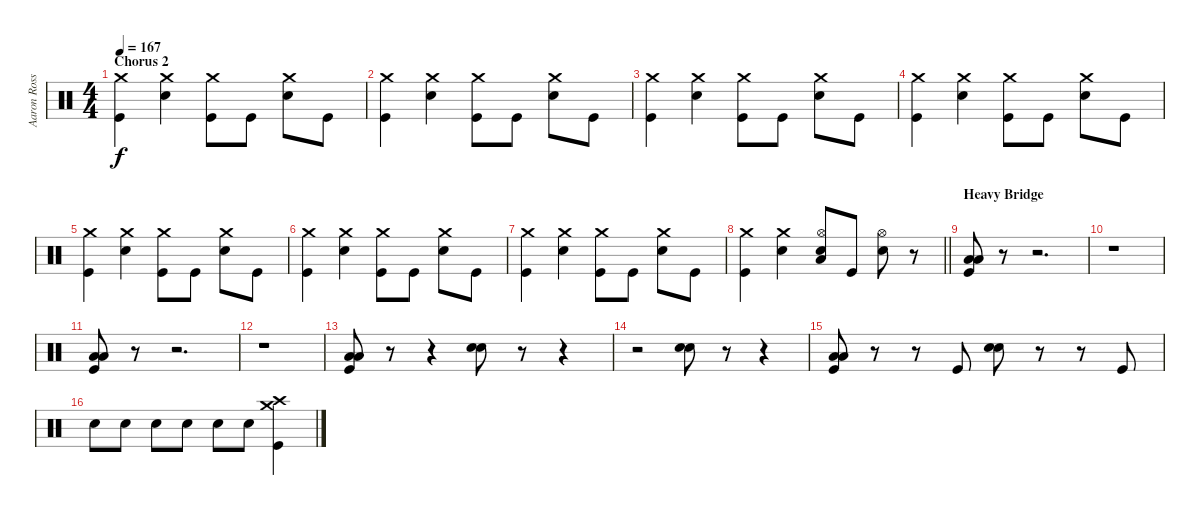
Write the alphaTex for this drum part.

\track ("Aaron Rossi (Drums)" "Aaron Ross") {instrument percussion}
\staff {score}
\articulation defaults
\ts (4 4)
\section ("" "Chorus 2")
\tempo 167
\clef neutral
\ks c
("Crash medium (hit)" "Kick (hit)").4{dy f} ("Crash medium (hit)" "Snare (hit) 2").4 ("Crash medium (hit)" "Kick (hit)").8 "Kick (hit)".8 ("Crash medium (hit)" "Snare (hit) 2").8 "Kick (hit)".8 |
("Crash medium (hit)" "Kick (hit)").4 ("Crash medium (hit)" "Snare (hit) 2").4 ("Crash medium (hit)" "Kick (hit)").8 "Kick (hit)".8 ("Crash medium (hit)" "Snare (hit) 2").8 "Kick (hit)".8 |
("Crash medium (hit)" "Kick (hit)").4 ("Crash medium (hit)" "Snare (hit) 2").4 ("Crash medium (hit)" "Kick (hit)").8 "Kick (hit)".8 ("Crash medium (hit)" "Snare (hit) 2").8 "Kick (hit)".8 |
("Crash medium (hit)" "Kick (hit)").4 ("Crash medium (hit)" "Snare (hit) 2").4 ("Crash medium (hit)" "Kick (hit)").8 "Kick (hit)".8 ("Crash medium (hit)" "Snare (hit) 2").8 "Kick (hit)".8 |
("Crash medium (hit)" "Kick (hit)").4 ("Crash medium (hit)" "Snare (hit) 2").4 ("Crash medium (hit)" "Kick (hit)").8 "Kick (hit)".8 ("Crash medium (hit)" "Snare (hit) 2").8 "Kick (hit)".8 |
("Crash medium (hit)" "Kick (hit)").4 ("Crash medium (hit)" "Snare (hit) 2").4 ("Crash medium (hit)" "Kick (hit)").8 "Kick (hit)".8 ("Crash medium (hit)" "Snare (hit) 2").8 "Kick (hit)".8 |
("Crash medium (hit)" "Kick (hit)").4 ("Crash medium (hit)" "Snare (hit) 2").4 ("Crash medium (hit)" "Kick (hit)").8 "Kick (hit)".8 ("Crash medium (hit)" "Snare (hit) 2").8 "Kick (hit)".8 |
\barLineRight lightlight
("Crash medium (hit)" "Kick (hit)").4 ("Crash medium (hit)" "Snare (hit) 2").4 ("Snare (hit) 2" "Hi-Hat (open)" "Low Floor Tom (hit)").8 "Kick (hit)".8 ("Snare (hit) 2" "Hi-Hat (open)").8 r.8 |
\section ("" "Heavy Bridge")
("Low Tom (hit)" "Low Floor Tom (hit)" "Kick (hit)").8 r.8 r.2{d} |
r.1 |
("Low Tom (hit)" "Low Floor Tom (hit)" "Kick (hit)").8 r.8 r.2{d} |
r.1 |
("Low Tom (hit)" "Low Floor Tom (hit)" "Kick (hit)").8 r.8 r.4 ("Snare (hit) 2" "Snare (hit) 2").8 r.8 r.4 |
r.2 ("Snare (hit) 2" "Snare (hit) 2").8 r.8 r.4 |
("Low Tom (hit)" "Low Floor Tom (hit)" "Kick (hit)").8 r.8 r.8 "Kick (hit)".8 ("Snare (hit) 2" "Snare (hit) 2").8 r.8 r.8 "Kick (hit)".8 |
"Snare (hit) 2".8 "Snare (hit) 2".8 "Snare (hit) 2".8 "Snare (hit) 2".8 "Snare (hit) 2".8 "Snare (hit) 2".8 ("Crash high (hit)" "Crash medium (hit)" "Kick (hit)").4
